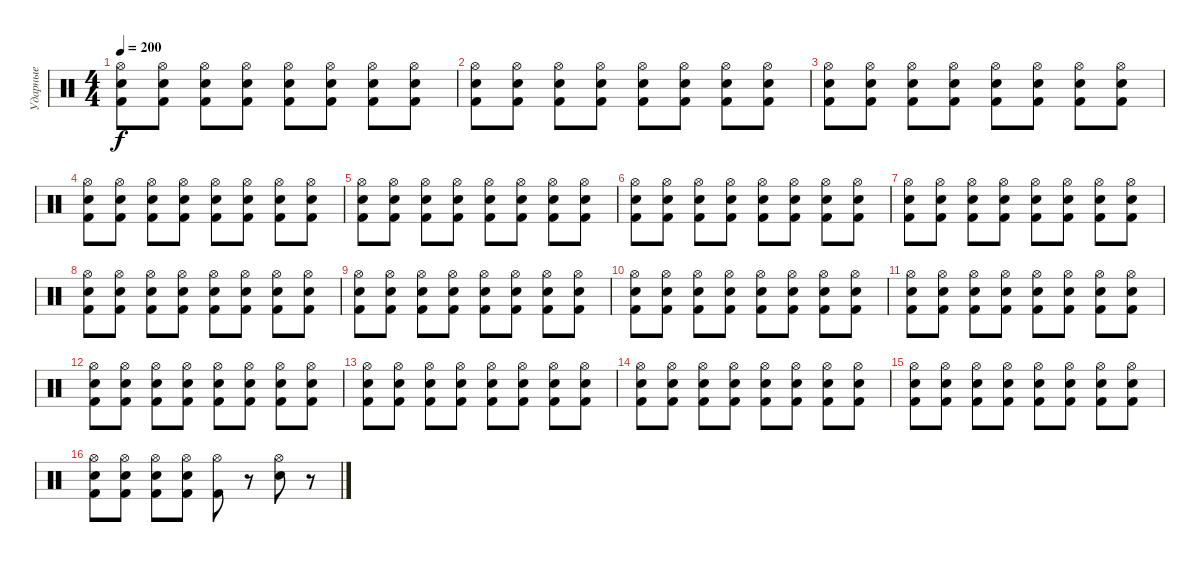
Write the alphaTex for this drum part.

\track ("Ударные" "Ударные") {instrument percussion}
\staff {score}
\articulation defaults
\ts (4 4)
\tempo 200
\clef neutral
\ks c
("Kick (hit) 2" "Electric Snare (hit)" "Hi-Hat (open)").8{dy f} ("Hi-Hat (open)" "Kick (hit) 2" "Electric Snare (hit)").8 ("Electric Snare (hit)" "Kick (hit) 2" "Hi-Hat (open)").8 ("Hi-Hat (open)" "Kick (hit) 2" "Electric Snare (hit)").8 ("Hi-Hat (open)" "Kick (hit) 2" "Electric Snare (hit)").8 ("Electric Snare (hit)" "Kick (hit) 2" "Hi-Hat (open)").8 ("Hi-Hat (open)" "Kick (hit) 2" "Electric Snare (hit)").8 ("Electric Snare (hit)" "Kick (hit) 2" "Hi-Hat (open)").8 |
("Kick (hit) 2" "Electric Snare (hit)" "Hi-Hat (open)").8 ("Hi-Hat (open)" "Kick (hit) 2" "Electric Snare (hit)").8 ("Electric Snare (hit)" "Kick (hit) 2" "Hi-Hat (open)").8 ("Hi-Hat (open)" "Kick (hit) 2" "Electric Snare (hit)").8 ("Hi-Hat (open)" "Kick (hit) 2" "Electric Snare (hit)").8 ("Electric Snare (hit)" "Kick (hit) 2" "Hi-Hat (open)").8 ("Hi-Hat (open)" "Kick (hit) 2" "Electric Snare (hit)").8 ("Electric Snare (hit)" "Kick (hit) 2" "Hi-Hat (open)").8 |
("Kick (hit) 2" "Electric Snare (hit)" "Hi-Hat (open)").8 ("Hi-Hat (open)" "Kick (hit) 2" "Electric Snare (hit)").8 ("Electric Snare (hit)" "Kick (hit) 2" "Hi-Hat (open)").8 ("Hi-Hat (open)" "Kick (hit) 2" "Electric Snare (hit)").8 ("Hi-Hat (open)" "Kick (hit) 2" "Electric Snare (hit)").8 ("Electric Snare (hit)" "Kick (hit) 2" "Hi-Hat (open)").8 ("Hi-Hat (open)" "Kick (hit) 2" "Electric Snare (hit)").8 ("Electric Snare (hit)" "Kick (hit) 2" "Hi-Hat (open)").8 |
("Kick (hit) 2" "Electric Snare (hit)" "Hi-Hat (open)").8 ("Hi-Hat (open)" "Kick (hit) 2" "Electric Snare (hit)").8 ("Electric Snare (hit)" "Kick (hit) 2" "Hi-Hat (open)").8 ("Hi-Hat (open)" "Kick (hit) 2" "Electric Snare (hit)").8 ("Hi-Hat (open)" "Kick (hit) 2" "Electric Snare (hit)").8 ("Electric Snare (hit)" "Kick (hit) 2" "Hi-Hat (open)").8 ("Hi-Hat (open)" "Kick (hit) 2" "Electric Snare (hit)").8 ("Electric Snare (hit)" "Kick (hit) 2" "Hi-Hat (open)").8 |
("Kick (hit) 2" "Electric Snare (hit)" "Hi-Hat (open)").8 ("Hi-Hat (open)" "Kick (hit) 2" "Electric Snare (hit)").8 ("Electric Snare (hit)" "Kick (hit) 2" "Hi-Hat (open)").8 ("Hi-Hat (open)" "Kick (hit) 2" "Electric Snare (hit)").8 ("Hi-Hat (open)" "Kick (hit) 2" "Electric Snare (hit)").8 ("Electric Snare (hit)" "Kick (hit) 2" "Hi-Hat (open)").8 ("Hi-Hat (open)" "Kick (hit) 2" "Electric Snare (hit)").8 ("Electric Snare (hit)" "Kick (hit) 2" "Hi-Hat (open)").8 |
("Kick (hit) 2" "Electric Snare (hit)" "Hi-Hat (open)").8 ("Hi-Hat (open)" "Kick (hit) 2" "Electric Snare (hit)").8 ("Electric Snare (hit)" "Kick (hit) 2" "Hi-Hat (open)").8 ("Hi-Hat (open)" "Kick (hit) 2" "Electric Snare (hit)").8 ("Hi-Hat (open)" "Kick (hit) 2" "Electric Snare (hit)").8 ("Electric Snare (hit)" "Kick (hit) 2" "Hi-Hat (open)").8 ("Hi-Hat (open)" "Kick (hit) 2" "Electric Snare (hit)").8 ("Electric Snare (hit)" "Kick (hit) 2" "Hi-Hat (open)").8 |
("Kick (hit) 2" "Electric Snare (hit)" "Hi-Hat (open)").8 ("Hi-Hat (open)" "Kick (hit) 2" "Electric Snare (hit)").8 ("Electric Snare (hit)" "Kick (hit) 2" "Hi-Hat (open)").8 ("Hi-Hat (open)" "Kick (hit) 2" "Electric Snare (hit)").8 ("Hi-Hat (open)" "Kick (hit) 2" "Electric Snare (hit)").8 ("Electric Snare (hit)" "Kick (hit) 2" "Hi-Hat (open)").8 ("Hi-Hat (open)" "Kick (hit) 2" "Electric Snare (hit)").8 ("Electric Snare (hit)" "Kick (hit) 2" "Hi-Hat (open)").8 |
("Kick (hit) 2" "Electric Snare (hit)" "Hi-Hat (open)").8 ("Hi-Hat (open)" "Kick (hit) 2" "Electric Snare (hit)").8 ("Electric Snare (hit)" "Kick (hit) 2" "Hi-Hat (open)").8 ("Hi-Hat (open)" "Kick (hit) 2" "Electric Snare (hit)").8 ("Hi-Hat (open)" "Kick (hit) 2" "Electric Snare (hit)").8 ("Electric Snare (hit)" "Kick (hit) 2" "Hi-Hat (open)").8 ("Hi-Hat (open)" "Kick (hit) 2" "Electric Snare (hit)").8 ("Electric Snare (hit)" "Kick (hit) 2" "Hi-Hat (open)").8 |
("Kick (hit) 2" "Electric Snare (hit)" "Hi-Hat (open)").8 ("Hi-Hat (open)" "Kick (hit) 2" "Electric Snare (hit)").8 ("Electric Snare (hit)" "Kick (hit) 2" "Hi-Hat (open)").8 ("Hi-Hat (open)" "Kick (hit) 2" "Electric Snare (hit)").8 ("Hi-Hat (open)" "Kick (hit) 2" "Electric Snare (hit)").8 ("Electric Snare (hit)" "Kick (hit) 2" "Hi-Hat (open)").8 ("Hi-Hat (open)" "Kick (hit) 2" "Electric Snare (hit)").8 ("Electric Snare (hit)" "Kick (hit) 2" "Hi-Hat (open)").8 |
("Kick (hit) 2" "Electric Snare (hit)" "Hi-Hat (open)").8 ("Hi-Hat (open)" "Kick (hit) 2" "Electric Snare (hit)").8 ("Electric Snare (hit)" "Kick (hit) 2" "Hi-Hat (open)").8 ("Hi-Hat (open)" "Kick (hit) 2" "Electric Snare (hit)").8 ("Hi-Hat (open)" "Kick (hit) 2" "Electric Snare (hit)").8 ("Electric Snare (hit)" "Kick (hit) 2" "Hi-Hat (open)").8 ("Hi-Hat (open)" "Kick (hit) 2" "Electric Snare (hit)").8 ("Electric Snare (hit)" "Kick (hit) 2" "Hi-Hat (open)").8 |
("Kick (hit) 2" "Electric Snare (hit)" "Hi-Hat (open)").8 ("Hi-Hat (open)" "Kick (hit) 2" "Electric Snare (hit)").8 ("Electric Snare (hit)" "Kick (hit) 2" "Hi-Hat (open)").8 ("Hi-Hat (open)" "Kick (hit) 2" "Electric Snare (hit)").8 ("Hi-Hat (open)" "Kick (hit) 2" "Electric Snare (hit)").8 ("Electric Snare (hit)" "Kick (hit) 2" "Hi-Hat (open)").8 ("Hi-Hat (open)" "Kick (hit) 2" "Electric Snare (hit)").8 ("Electric Snare (hit)" "Kick (hit) 2" "Hi-Hat (open)").8 |
("Kick (hit) 2" "Electric Snare (hit)" "Hi-Hat (open)").8 ("Hi-Hat (open)" "Kick (hit) 2" "Electric Snare (hit)").8 ("Electric Snare (hit)" "Kick (hit) 2" "Hi-Hat (open)").8 ("Hi-Hat (open)" "Kick (hit) 2" "Electric Snare (hit)").8 ("Hi-Hat (open)" "Kick (hit) 2" "Electric Snare (hit)").8 ("Electric Snare (hit)" "Kick (hit) 2" "Hi-Hat (open)").8 ("Hi-Hat (open)" "Kick (hit) 2" "Electric Snare (hit)").8 ("Electric Snare (hit)" "Kick (hit) 2" "Hi-Hat (open)").8 |
("Kick (hit) 2" "Electric Snare (hit)" "Hi-Hat (open)").8 ("Hi-Hat (open)" "Kick (hit) 2" "Electric Snare (hit)").8 ("Electric Snare (hit)" "Kick (hit) 2" "Hi-Hat (open)").8 ("Hi-Hat (open)" "Kick (hit) 2" "Electric Snare (hit)").8 ("Hi-Hat (open)" "Kick (hit) 2" "Electric Snare (hit)").8 ("Electric Snare (hit)" "Kick (hit) 2" "Hi-Hat (open)").8 ("Hi-Hat (open)" "Kick (hit) 2" "Electric Snare (hit)").8 ("Electric Snare (hit)" "Kick (hit) 2" "Hi-Hat (open)").8 |
("Kick (hit) 2" "Electric Snare (hit)" "Hi-Hat (open)").8 ("Hi-Hat (open)" "Kick (hit) 2" "Electric Snare (hit)").8 ("Electric Snare (hit)" "Kick (hit) 2" "Hi-Hat (open)").8 ("Hi-Hat (open)" "Kick (hit) 2" "Electric Snare (hit)").8 ("Hi-Hat (open)" "Kick (hit) 2" "Electric Snare (hit)").8 ("Electric Snare (hit)" "Kick (hit) 2" "Hi-Hat (open)").8 ("Hi-Hat (open)" "Kick (hit) 2" "Electric Snare (hit)").8 ("Electric Snare (hit)" "Kick (hit) 2" "Hi-Hat (open)").8 |
("Kick (hit) 2" "Electric Snare (hit)" "Hi-Hat (open)").8 ("Hi-Hat (open)" "Kick (hit) 2" "Electric Snare (hit)").8 ("Electric Snare (hit)" "Kick (hit) 2" "Hi-Hat (open)").8 ("Hi-Hat (open)" "Kick (hit) 2" "Electric Snare (hit)").8 ("Hi-Hat (open)" "Kick (hit) 2" "Electric Snare (hit)").8 ("Electric Snare (hit)" "Kick (hit) 2" "Hi-Hat (open)").8 ("Hi-Hat (open)" "Kick (hit) 2" "Electric Snare (hit)").8 ("Electric Snare (hit)" "Kick (hit) 2" "Hi-Hat (open)").8 |
("Kick (hit) 2" "Electric Snare (hit)" "Hi-Hat (open)").8 ("Hi-Hat (open)" "Kick (hit) 2" "Electric Snare (hit)").8 ("Electric Snare (hit)" "Kick (hit) 2" "Hi-Hat (open)").8 ("Hi-Hat (open)" "Kick (hit) 2" "Electric Snare (hit)").8 ("Kick (hit) 2" "Hi-Hat (open)").8 r.8 ("Electric Snare (hit)" "Hi-Hat (open)").8 r.8
